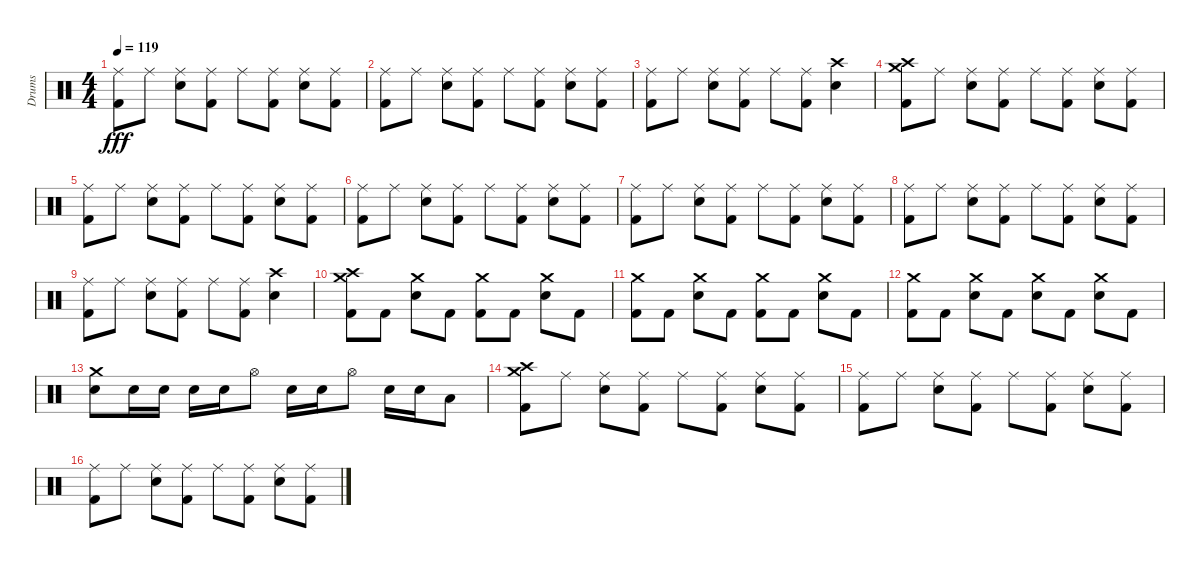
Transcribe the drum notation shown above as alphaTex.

\track ("Drums" "Drums") {instrument percussion}
\staff {score}
\articulation defaults
\ts (4 4)
\tempo 119
\clef neutral
\ks c
("Ride (middle)" "Kick (hit) 2").8{dy fff} "Ride (middle)".8 ("Ride (middle)" "Snare (hit) 2").8 ("Ride (middle)" "Kick (hit) 2").8 "Ride (middle)".8 ("Ride (middle)" "Kick (hit) 2").8 ("Ride (middle)" "Snare (hit) 2").8 ("Ride (middle)" "Kick (hit) 2").8 |
("Ride (middle)" "Kick (hit) 2").8 "Ride (middle)".8 ("Ride (middle)" "Snare (hit) 2").8 ("Ride (middle)" "Kick (hit) 2").8 "Ride (middle)".8 ("Ride (middle)" "Kick (hit) 2").8 ("Ride (middle)" "Snare (hit) 2").8 ("Ride (middle)" "Kick (hit) 2").8 |
("Ride (middle)" "Kick (hit) 2").8 "Ride (middle)".8 ("Ride (middle)" "Snare (hit) 2").8 ("Ride (middle)" "Kick (hit) 2").8 "Ride (middle)".8 ("Ride (middle)" "Kick (hit) 2").8 ("Crash high (hit)" "Snare (hit) 2").4 |
("Crash high (hit)" "Crash medium (hit)" "Kick (hit) 2").8 "Ride (middle)".8 ("Ride (middle)" "Snare (hit) 2").8 ("Ride (middle)" "Kick (hit) 2").8 "Ride (middle)".8 ("Ride (middle)" "Kick (hit) 2").8 ("Ride (middle)" "Snare (hit) 2").8 ("Ride (middle)" "Kick (hit) 2").8 |
("Ride (middle)" "Kick (hit) 2").8 "Ride (middle)".8 ("Ride (middle)" "Snare (hit) 2").8 ("Ride (middle)" "Kick (hit) 2").8 "Ride (middle)".8 ("Ride (middle)" "Kick (hit) 2").8 ("Ride (middle)" "Snare (hit) 2").8 ("Ride (middle)" "Kick (hit) 2").8 |
("Ride (middle)" "Kick (hit) 2").8 "Ride (middle)".8 ("Ride (middle)" "Snare (hit) 2").8 ("Ride (middle)" "Kick (hit) 2").8 "Ride (middle)".8 ("Ride (middle)" "Kick (hit) 2").8 ("Ride (middle)" "Snare (hit) 2").8 ("Ride (middle)" "Kick (hit) 2").8 |
("Ride (middle)" "Kick (hit) 2").8 "Ride (middle)".8 ("Ride (middle)" "Snare (hit) 2").8 ("Ride (middle)" "Kick (hit) 2").8 "Ride (middle)".8 ("Ride (middle)" "Kick (hit) 2").8 ("Ride (middle)" "Snare (hit) 2").8 ("Ride (middle)" "Kick (hit) 2").8 |
("Ride (middle)" "Kick (hit) 2").8 "Ride (middle)".8 ("Ride (middle)" "Snare (hit) 2").8 ("Ride (middle)" "Kick (hit) 2").8 "Ride (middle)".8 ("Ride (middle)" "Kick (hit) 2").8 ("Ride (middle)" "Snare (hit) 2").8 ("Ride (middle)" "Kick (hit) 2").8 |
("Ride (middle)" "Kick (hit) 2").8 "Ride (middle)".8 ("Ride (middle)" "Snare (hit) 2").8 ("Ride (middle)" "Kick (hit) 2").8 "Ride (middle)".8 ("Ride (middle)" "Kick (hit) 2").8 ("Crash high (hit)" "Snare (hit) 2").4 |
("Crash high (hit)" "Crash medium (hit)" "Kick (hit) 2").8 "Kick (hit) 2".8 ("Crash medium (hit)" "Snare (hit) 2").8 "Kick (hit) 2".8 ("Crash medium (hit)" "Kick (hit) 2").8 "Kick (hit) 2".8 ("Crash medium (hit)" "Snare (hit) 2").8 "Kick (hit) 2".8 |
("Crash medium (hit)" "Kick (hit) 2").8 "Kick (hit) 2".8 ("Crash medium (hit)" "Snare (hit) 2").8 "Kick (hit) 2".8 ("Crash medium (hit)" "Kick (hit) 2").8 "Kick (hit) 2".8 ("Crash medium (hit)" "Snare (hit) 2").8 "Kick (hit) 2".8 |
("Crash medium (hit)" "Kick (hit) 2").8 "Kick (hit) 2".8 ("Crash medium (hit)" "Snare (hit) 2").8 "Kick (hit) 2".8 ("Crash medium (hit)" "Snare (hit) 2").8 "Kick (hit) 2".8 ("Crash medium (hit)" "Snare (hit) 2").8 "Kick (hit) 2".8 |
("Crash medium (hit)" "Snare (hit) 2").8 "Snare (hit) 2".16 "Snare (hit) 2".16 "Snare (hit) 2".16 "Snare (hit) 2".16 "Hi-Hat (open)".8 "Snare (hit) 2".16 "Snare (hit) 2".16 "Hi-Hat (open)".8 "Snare (hit) 2".16 "Snare (hit) 2".16 "Low Tom (hit)".8 |
("Crash high (hit)" "Crash medium (hit)" "Kick (hit) 2").8 "Ride (middle)".8 ("Ride (middle)" "Snare (hit) 2").8 ("Ride (middle)" "Kick (hit) 2").8 "Ride (middle)".8 ("Ride (middle)" "Kick (hit) 2").8 ("Ride (middle)" "Snare (hit) 2").8 ("Ride (middle)" "Kick (hit) 2").8 |
("Ride (middle)" "Kick (hit) 2").8 "Ride (middle)".8 ("Ride (middle)" "Snare (hit) 2").8 ("Ride (middle)" "Kick (hit) 2").8 "Ride (middle)".8 ("Ride (middle)" "Kick (hit) 2").8 ("Ride (middle)" "Snare (hit) 2").8 ("Ride (middle)" "Kick (hit) 2").8 |
("Ride (middle)" "Kick (hit) 2").8 "Ride (middle)".8 ("Ride (middle)" "Snare (hit) 2").8 ("Ride (middle)" "Kick (hit) 2").8 "Ride (middle)".8 ("Ride (middle)" "Kick (hit) 2").8 ("Ride (middle)" "Snare (hit) 2").8 ("Ride (middle)" "Kick (hit) 2").8
